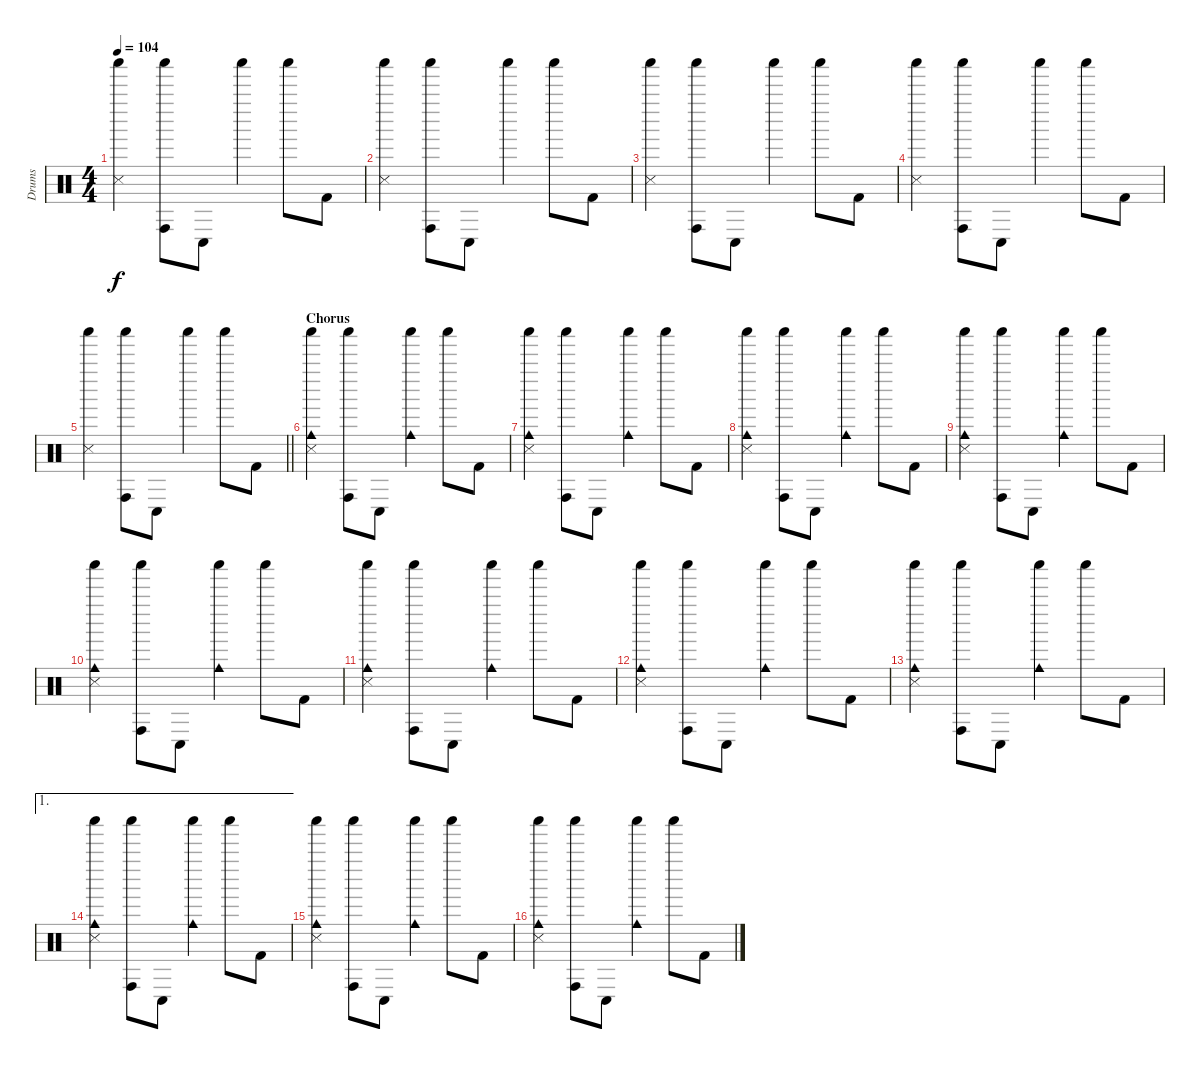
\track ("Drums" "Drums") {instrument percussion}
\staff {score}
\articulation defaults
\ts (4 4)
\tempo 104
\clef neutral
\ks c
("Snare (side stick) 3" "Shaker (hit)").4{dy f} ("Shaker (hit)" "Conga high (hit)").8 "Conga low (hit)".8 "Shaker (hit)".4 "Shaker (hit)".8 "Kick (hit) 2".8 |
("Snare (side stick) 3" "Shaker (hit)").4 ("Shaker (hit)" "Conga high (hit)").8 "Conga low (hit)".8 "Shaker (hit)".4 "Shaker (hit)".8 "Kick (hit) 2".8 |
("Snare (side stick) 3" "Shaker (hit)").4 ("Shaker (hit)" "Conga high (hit)").8 "Conga low (hit)".8 "Shaker (hit)".4 "Shaker (hit)".8 "Kick (hit) 2".8 |
("Snare (side stick) 3" "Shaker (hit)").4 ("Shaker (hit)" "Conga high (hit)").8 "Conga low (hit)".8 "Shaker (hit)".4 "Shaker (hit)".8 "Kick (hit) 2".8 |
\barLineRight lightlight
("Snare (side stick) 3" "Shaker (hit)").4 ("Shaker (hit)" "Conga high (hit)").8 "Conga low (hit)".8 "Shaker (hit)".4 "Shaker (hit)".8 "Kick (hit) 2".8 |
\section ("" "Chorus")
("Snare (side stick) 3" "Shaker (hit)" "Cowbell medium (hit)").4 ("Shaker (hit)" "Conga high (hit)").8 "Conga low (hit)".8 ("Shaker (hit)" "Cowbell medium (hit)").4 "Shaker (hit)".8 "Kick (hit) 2".8 |
("Snare (side stick) 3" "Shaker (hit)" "Cowbell medium (hit)").4 ("Shaker (hit)" "Conga high (hit)").8 "Conga low (hit)".8 ("Shaker (hit)" "Cowbell medium (hit)").4 "Shaker (hit)".8 "Kick (hit) 2".8 |
("Snare (side stick) 3" "Shaker (hit)" "Cowbell medium (hit)").4 ("Shaker (hit)" "Conga high (hit)").8 "Conga low (hit)".8 ("Shaker (hit)" "Cowbell medium (hit)").4 "Shaker (hit)".8 "Kick (hit) 2".8 |
("Snare (side stick) 3" "Shaker (hit)" "Cowbell medium (hit)").4 ("Shaker (hit)" "Conga high (hit)").8 "Conga low (hit)".8 ("Shaker (hit)" "Cowbell medium (hit)").4 "Shaker (hit)".8 "Kick (hit) 2".8 |
("Snare (side stick) 3" "Shaker (hit)" "Cowbell medium (hit)").4 ("Shaker (hit)" "Conga high (hit)").8 "Conga low (hit)".8 ("Shaker (hit)" "Cowbell medium (hit)").4 "Shaker (hit)".8 "Kick (hit) 2".8 |
("Snare (side stick) 3" "Shaker (hit)" "Cowbell medium (hit)").4 ("Shaker (hit)" "Conga high (hit)").8 "Conga low (hit)".8 ("Shaker (hit)" "Cowbell medium (hit)").4 "Shaker (hit)".8 "Kick (hit) 2".8 |
("Snare (side stick) 3" "Shaker (hit)" "Cowbell medium (hit)").4 ("Shaker (hit)" "Conga high (hit)").8 "Conga low (hit)".8 ("Shaker (hit)" "Cowbell medium (hit)").4 "Shaker (hit)".8 "Kick (hit) 2".8 |
("Snare (side stick) 3" "Shaker (hit)" "Cowbell medium (hit)").4 ("Shaker (hit)" "Conga high (hit)").8 "Conga low (hit)".8 ("Shaker (hit)" "Cowbell medium (hit)").4 "Shaker (hit)".8 "Kick (hit) 2".8 |
\ae 1
("Snare (side stick) 3" "Shaker (hit)" "Cowbell medium (hit)").4 ("Shaker (hit)" "Conga high (hit)").8 "Conga low (hit)".8 ("Shaker (hit)" "Cowbell medium (hit)").4 "Shaker (hit)".8 "Kick (hit) 2".8 |
("Snare (side stick) 3" "Shaker (hit)" "Cowbell medium (hit)").4 ("Shaker (hit)" "Conga high (hit)").8 "Conga low (hit)".8 ("Shaker (hit)" "Cowbell medium (hit)").4 "Shaker (hit)".8 "Kick (hit) 2".8 |
("Snare (side stick) 3" "Shaker (hit)" "Cowbell medium (hit)").4 ("Shaker (hit)" "Conga high (hit)").8 "Conga low (hit)".8 ("Shaker (hit)" "Cowbell medium (hit)").4 "Shaker (hit)".8 "Kick (hit) 2".8
